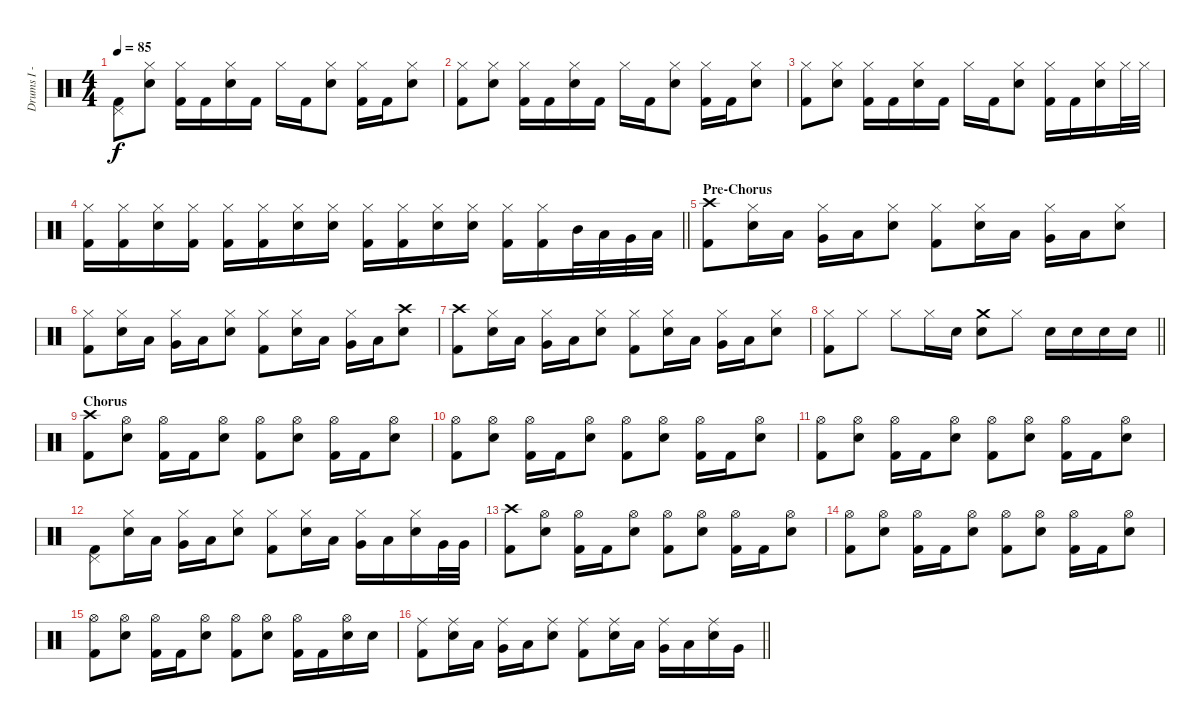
\track ("Drums I - Adam" "Drums I - ") {instrument percussion}
\staff {score}
\articulation defaults
\ts (4 4)
\tempo 85
\clef neutral
\ks c
("Kick (hit) 2" "Pedal Hi-Hat (hit)").8{dy f} ("Snare (hit) 2" "Hi-Hat (closed)").8 ("Kick (hit) 2" "Hi-Hat (closed)").16 "Kick (hit) 2".16 ("Snare (hit) 2" "Hi-Hat (closed)").16 "Kick (hit) 2".16 "Hi-Hat (closed)".16 "Kick (hit) 2".16 ("Snare (hit) 2" "Hi-Hat (closed)").8 ("Kick (hit) 2" "Hi-Hat (closed)").16 "Kick (hit) 2".16 ("Snare (hit) 2" "Hi-Hat (closed)").8 |
("Kick (hit) 2" "Hi-Hat (closed)").8 ("Snare (hit) 2" "Hi-Hat (closed)").8 ("Kick (hit) 2" "Hi-Hat (closed)").16 "Kick (hit) 2".16 ("Snare (hit) 2" "Hi-Hat (closed)").16 "Kick (hit) 2".16 "Hi-Hat (closed)".16 "Kick (hit) 2".16 ("Snare (hit) 2" "Hi-Hat (closed)").8 ("Kick (hit) 2" "Hi-Hat (closed)").16 "Kick (hit) 2".16 ("Snare (hit) 2" "Hi-Hat (closed)").8 |
("Kick (hit) 2" "Hi-Hat (closed)").8 ("Snare (hit) 2" "Hi-Hat (closed)").8 ("Kick (hit) 2" "Hi-Hat (closed)").16 "Kick (hit) 2".16 ("Snare (hit) 2" "Hi-Hat (closed)").16 "Kick (hit) 2".16 "Hi-Hat (closed)".16 "Kick (hit) 2".16 ("Snare (hit) 2" "Hi-Hat (closed)").8 ("Kick (hit) 2" "Hi-Hat (closed)").16 "Kick (hit) 2".16 ("Snare (hit) 2" "Hi-Hat (closed)").16 "Hi-Hat (closed)".32 "Hi-Hat (closed)".32 |
\barLineRight lightlight
("Kick (hit) 2" "Hi-Hat (closed)").16 ("Kick (hit) 2" "Hi-Hat (closed)").16 ("Snare (hit) 2" "Hi-Hat (closed)").16 ("Kick (hit) 2" "Hi-Hat (closed)").16 ("Kick (hit) 2" "Hi-Hat (closed)").16 ("Kick (hit) 2" "Hi-Hat (closed)").16 ("Snare (hit) 2" "Hi-Hat (closed)").16 ("Snare (hit) 2" "Hi-Hat (closed)").16 ("Kick (hit) 2" "Hi-Hat (closed)").16 ("Kick (hit) 2" "Hi-Hat (closed)").16 ("Snare (hit) 2" "Hi-Hat (closed)").16 ("Snare (hit) 2" "Hi-Hat (closed)").16 ("Kick (hit) 2" "Hi-Hat (closed)").16 ("Kick (hit) 2" "Hi-Hat (closed)").16 "Mid Tom (hit)".32 "Low Tom (hit)".32 "Very Low Tom (hit)".32 "Low Floor Tom (hit)".32 |
\section ("" "Pre-Chorus")
("Kick (hit) 2" "Crash high (hit)").8 ("Snare (hit) 2" "Hi-Hat (closed)").16 "Low Tom (hit)".16 ("Very Low Tom (hit)" "Hi-Hat (closed)").16 "Low Floor Tom (hit)".16 ("Snare (hit) 2" "Hi-Hat (closed)").8 ("Kick (hit) 2" "Hi-Hat (closed)").8 ("Snare (hit) 2" "Hi-Hat (closed)").16 "Low Tom (hit)".16 ("Very Low Tom (hit)" "Hi-Hat (closed)").16 "Low Floor Tom (hit)".16 ("Snare (hit) 2" "Hi-Hat (closed)").8 |
("Kick (hit) 2" "Hi-Hat (closed)").8 ("Snare (hit) 2" "Hi-Hat (closed)").16 "Low Tom (hit)".16 ("Very Low Tom (hit)" "Hi-Hat (closed)").16 "Low Floor Tom (hit)".16 ("Snare (hit) 2" "Hi-Hat (closed)").8 ("Kick (hit) 2" "Hi-Hat (closed)").8 ("Snare (hit) 2" "Hi-Hat (closed)").16 "Low Tom (hit)".16 ("Very Low Tom (hit)" "Hi-Hat (closed)").16 "Low Floor Tom (hit)".16 ("Snare (hit) 2" "Crash high (hit)").8 |
("Kick (hit) 2" "Crash high (hit)").8 ("Snare (hit) 2" "Hi-Hat (closed)").16 "Low Tom (hit)".16 ("Very Low Tom (hit)" "Hi-Hat (closed)").16 "Low Floor Tom (hit)".16 ("Snare (hit) 2" "Hi-Hat (closed)").8 ("Kick (hit) 2" "Hi-Hat (closed)").8 ("Snare (hit) 2" "Hi-Hat (closed)").16 "Low Tom (hit)".16 ("Very Low Tom (hit)" "Hi-Hat (closed)").16 "Low Floor Tom (hit)".16 ("Snare (hit) 2" "Hi-Hat (closed)").8 |
\barLineRight lightlight
("Kick (hit) 2" "Hi-Hat (closed)").8 "Hi-Hat (closed)".8 "Hi-Hat (closed)".8 "Hi-Hat (closed)".16 "Snare (hit) 2".16 ("Snare (hit) 2" "Crash medium (hit)").8 "Hi-Hat (closed)".8 "Snare (hit) 2".16 "Snare (hit) 2".16 "Snare (hit) 2".16 "Snare (hit) 2".16 |
\section ("" "Chorus")
("Kick (hit) 2" "Crash high (hit)").8 ("Snare (hit) 2" "Hi-Hat (open)").8 ("Kick (hit) 2" "Hi-Hat (open)").16 "Kick (hit) 2".16 ("Snare (hit) 2" "Hi-Hat (open)").8 ("Kick (hit) 2" "Hi-Hat (open)").8 ("Snare (hit) 2" "Hi-Hat (open)").8 ("Kick (hit) 2" "Hi-Hat (open)").16 "Kick (hit) 2".16 ("Snare (hit) 2" "Hi-Hat (open)").8 |
("Kick (hit) 2" "Hi-Hat (open)").8 ("Snare (hit) 2" "Hi-Hat (open)").8 ("Kick (hit) 2" "Hi-Hat (open)").16 "Kick (hit) 2".16 ("Snare (hit) 2" "Hi-Hat (open)").8 ("Kick (hit) 2" "Hi-Hat (open)").8 ("Snare (hit) 2" "Hi-Hat (open)").8 ("Kick (hit) 2" "Hi-Hat (open)").16 "Kick (hit) 2".16 ("Snare (hit) 2" "Hi-Hat (open)").8 |
("Kick (hit) 2" "Hi-Hat (open)").8 ("Snare (hit) 2" "Hi-Hat (open)").8 ("Kick (hit) 2" "Hi-Hat (open)").16 "Kick (hit) 2".16 ("Snare (hit) 2" "Hi-Hat (open)").8 ("Kick (hit) 2" "Hi-Hat (open)").8 ("Snare (hit) 2" "Hi-Hat (open)").8 ("Kick (hit) 2" "Hi-Hat (open)").16 "Kick (hit) 2".16 ("Snare (hit) 2" "Hi-Hat (open)").8 |
("Kick (hit) 2" "Pedal Hi-Hat (hit)").8 ("Snare (hit) 2" "Hi-Hat (closed)").16 "Low Tom (hit)".16 ("Very Low Tom (hit)" "Hi-Hat (closed)").16 "Low Floor Tom (hit)".16 ("Snare (hit) 2" "Hi-Hat (closed)").8 ("Kick (hit) 2" "Hi-Hat (closed)").8 ("Snare (hit) 2" "Hi-Hat (closed)").16 "Low Tom (hit)".16 ("Very Low Tom (hit)" "Hi-Hat (closed)").16 "Low Floor Tom (hit)".16 ("Snare (hit) 2" "Hi-Hat (closed)").16 "Very Low Tom (hit)".32 "Very Low Tom (hit)".32 |
("Kick (hit) 2" "Crash high (hit)").8 ("Snare (hit) 2" "Hi-Hat (open)").8 ("Kick (hit) 2" "Hi-Hat (open)").16 "Kick (hit) 2".16 ("Snare (hit) 2" "Hi-Hat (open)").8 ("Kick (hit) 2" "Hi-Hat (open)").8 ("Snare (hit) 2" "Hi-Hat (open)").8 ("Kick (hit) 2" "Hi-Hat (open)").16 "Kick (hit) 2".16 ("Snare (hit) 2" "Hi-Hat (open)").8 |
("Kick (hit) 2" "Hi-Hat (open)").8 ("Snare (hit) 2" "Hi-Hat (open)").8 ("Kick (hit) 2" "Hi-Hat (open)").16 "Kick (hit) 2".16 ("Snare (hit) 2" "Hi-Hat (open)").8 ("Kick (hit) 2" "Hi-Hat (open)").8 ("Snare (hit) 2" "Hi-Hat (open)").8 ("Kick (hit) 2" "Hi-Hat (open)").16 "Kick (hit) 2".16 ("Snare (hit) 2" "Hi-Hat (open)").8 |
("Kick (hit) 2" "Hi-Hat (open)").8 ("Snare (hit) 2" "Hi-Hat (open)").8 ("Kick (hit) 2" "Hi-Hat (open)").16 "Kick (hit) 2".16 ("Snare (hit) 2" "Hi-Hat (open)").8 ("Kick (hit) 2" "Hi-Hat (open)").8 ("Snare (hit) 2" "Hi-Hat (open)").8 ("Kick (hit) 2" "Hi-Hat (open)").16 "Kick (hit) 2".16 ("Snare (hit) 2" "Hi-Hat (open)").16 "Snare (hit) 2".16 |
\barLineRight lightlight
("Kick (hit) 2" "Ride (middle)").8 ("Snare (hit) 2" "Ride (middle)").16 "Low Tom (hit)".16 ("Very Low Tom (hit)" "Ride (middle)").16 "Low Floor Tom (hit)".16 ("Snare (hit) 2" "Ride (middle)").8 ("Kick (hit) 2" "Ride (middle)").8 ("Snare (hit) 2" "Ride (middle)").16 "Low Tom (hit)".16 ("Very Low Tom (hit)" "Ride (middle)").16 "Low Floor Tom (hit)".16 ("Snare (hit) 2" "Ride (middle)").16 "Very Low Tom (hit)".16
